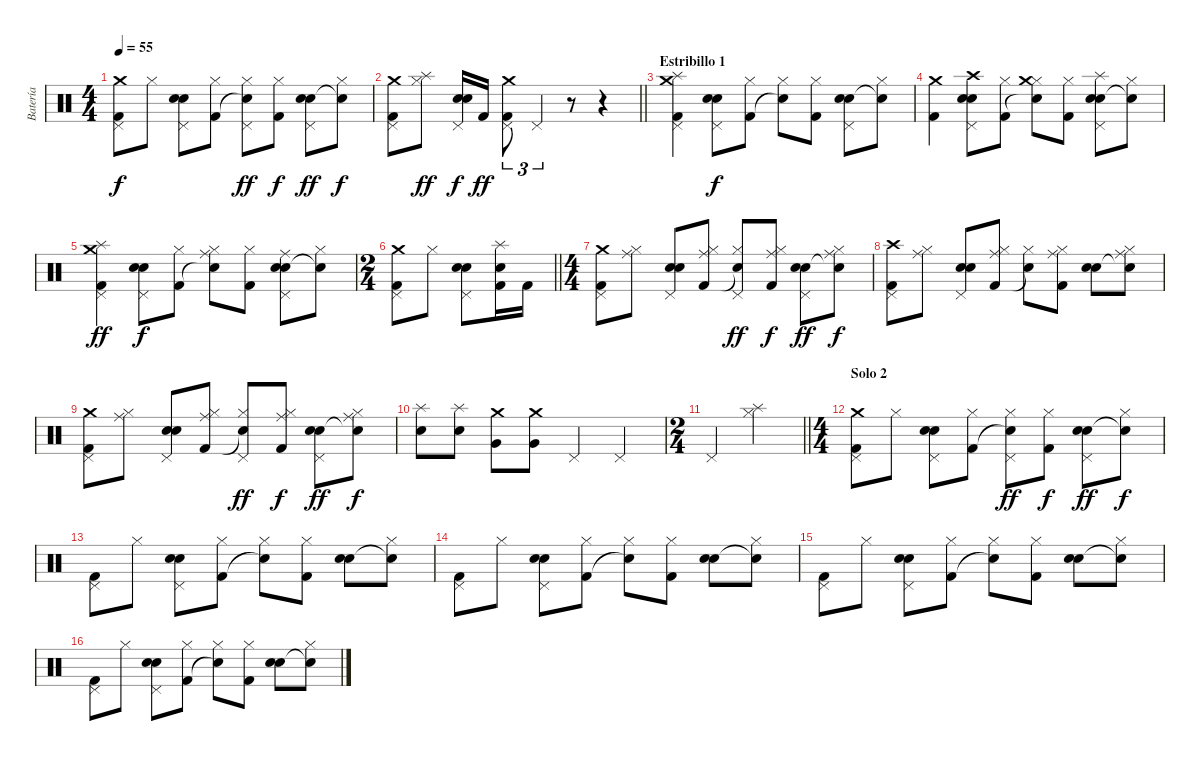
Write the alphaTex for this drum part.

\track ("Batería" "Batería") {instrument percussion}
\staff {score}
\articulation defaults
\ts (4 4)
\tempo 55
\clef neutral
\ks c
("Crash medium (hit)" "Kick (hit) 2" "Pedal Hi-Hat (hit)").8{dy f} "Hi-Hat (closed)".8 ("Electric Snare (hit)" "Snare (hit) 2" "Pedal Hi-Hat (hit)").8 ("Kick (hit) 2" "Hi-Hat (closed)").8 ("Snare (hit)"{t} "Hi-Hat (closed)" "Pedal Hi-Hat (hit)").8{dy ff} ("Kick (hit) 2" "Hi-Hat (closed)").8{dy f} ("Electric Snare (hit)" "Snare (hit) 2" "Pedal Hi-Hat (hit)").8{dy ff} ("Snare (hit)"{t} "Hi-Hat (closed)").8{dy f} |
\barLineRight lightlight
("Crash medium (hit)" "Kick (hit) 2" "Pedal Hi-Hat (hit)").8 ("Hi-Hat (closed)" "Splash (hit)").8{dy ff} ("Electric Snare (hit)" "Snare (hit) 2" "Pedal Hi-Hat (hit)").16{dy f} "Kick (hit) 2".16{dy ff} ("Crash medium (hit)" "Kick (hit) 2" "Pedal Hi-Hat (hit)").8{tu (3 2)} "Pedal Hi-Hat (hit)".4{tu (3 2)} r.8 r.4 |
\section ("" "Estribillo 1")
("Crash medium (hit)" "Kick (hit) 2" "Pedal Hi-Hat (hit)" "Splash (hit)").4 ("Electric Snare (hit)" "Snare (hit) 2" "Pedal Hi-Hat (hit)").8{dy f} ("Kick (hit) 2" "Hi-Hat (closed)").8 ("Snare (hit)"{t} "Hi-Hat (closed)").8 ("Kick (hit) 2" "Hi-Hat (closed)").8 ("Electric Snare (hit)" "Snare (hit) 2" "Pedal Hi-Hat (hit)").8 ("Snare (hit)"{t} "Hi-Hat (closed)").8 |
("Crash medium (hit)" "Kick (hit) 2").4 ("Electric Snare (hit)" "Snare (hit) 2" "Pedal Hi-Hat (hit)" "Crash high (hit)").8 ("Kick (hit) 2" "Hi-Hat (closed)").8 ("Snare (hit)"{t} "Hi-Hat (closed)" "Crash medium (hit)").8 ("Kick (hit) 2" "Hi-Hat (closed)").8 ("Electric Snare (hit)" "Snare (hit) 2" "Pedal Hi-Hat (hit)" "Splash (hit)").8 ("Snare (hit)"{t} "Hi-Hat (closed)").8 |
("Crash medium (hit)" "Kick (hit) 2" "Pedal Hi-Hat (hit)" "Splash (hit)").4{dy ff} ("Electric Snare (hit)" "Snare (hit) 2" "Pedal Hi-Hat (hit)").8{dy f} ("Kick (hit) 2" "Hi-Hat (closed)").8 ("Snare (hit)"{t} "Hi-Hat (closed)" "Ride (middle)").8 ("Kick (hit) 2" "Hi-Hat (closed)").8 ("Electric Snare (hit)" "Snare (hit) 2" "Pedal Hi-Hat (hit)" "Ride (middle)").8 ("Snare (hit)"{t} "Hi-Hat (closed)").8 |
\ts (2 4)
\barLineRight lightlight
("Crash medium (hit)" "Kick (hit) 2" "Pedal Hi-Hat (hit)").8 "Hi-Hat (closed)".8 ("Electric Snare (hit)" "Snare (hit) 2" "Pedal Hi-Hat (hit)").8 ("Kick (hit) 2" "Splash (hit)" "Snare (hit) 2").16 "Kick (hit) 2".16 |
\ts (4 4)
("Crash medium (hit)" "Kick (hit) 2" "Pedal Hi-Hat (hit)").8 ("Hi-Hat (closed)" "Ride (middle)").8 ("Electric Snare (hit)" "Snare (hit) 2" "Pedal Hi-Hat (hit)").8 ("Kick (hit) 2" "Hi-Hat (closed)" "Ride (middle)").8 ("Snare (hit)"{t} "Hi-Hat (closed)" "Pedal Hi-Hat (hit)").8{dy ff} ("Kick (hit) 2" "Hi-Hat (closed)" "Ride (middle)").8{dy f} ("Electric Snare (hit)" "Snare (hit) 2" "Pedal Hi-Hat (hit)").8{dy ff} ("Snare (hit)"{t} "Hi-Hat (closed)" "Ride (middle)").8{dy f} |
("Crash high (hit)" "Kick (hit) 2" "Pedal Hi-Hat (hit)").8 ("Hi-Hat (closed)" "Ride (middle)").8 ("Electric Snare (hit)" "Snare (hit) 2" "Pedal Hi-Hat (hit)").8 ("Kick (hit) 2" "Hi-Hat (closed)" "Ride (middle)").8 ("Snare (hit)"{t} "Hi-Hat (closed)").8 ("Kick (hit) 2" "Hi-Hat (closed)" "Ride (middle)").8 ("Electric Snare (hit)" "Snare (hit) 2").8 ("Snare (hit)"{t} "Hi-Hat (closed)" "Ride (middle)").8 |
("Crash medium (hit)" "Kick (hit) 2" "Pedal Hi-Hat (hit)").8 ("Hi-Hat (closed)" "Ride (middle)").8 ("Electric Snare (hit)" "Snare (hit) 2" "Pedal Hi-Hat (hit)").8 ("Kick (hit) 2" "Hi-Hat (closed)" "Ride (middle)").8 ("Snare (hit)"{t} "Hi-Hat (closed)" "Pedal Hi-Hat (hit)").8{dy ff} ("Kick (hit) 2" "Hi-Hat (closed)" "Ride (middle)").8{dy f} ("Electric Snare (hit)" "Snare (hit) 2" "Pedal Hi-Hat (hit)").8{dy ff} ("Snare (hit)"{t} "Hi-Hat (closed)" "Ride (middle)").8{dy f} |
("Splash (hit)" "Snare (hit) 2").8 ("Splash (hit)" "Snare (hit) 2").8 ("Crash medium (hit)" "Very Low Tom (hit)").8 ("Crash medium (hit)" "Very Low Tom (hit)").8 "Pedal Hi-Hat (hit)".4 "Pedal Hi-Hat (hit)".4 |
\ts (2 4)
\barLineRight lightlight "Pedal Hi-Hat (hit)".4
("Splash (hit)" "Hi-Hat (closed)").4 |
\ts (4 4)
\section ("" "Solo 2")
("Crash medium (hit)" "Kick (hit) 2" "Pedal Hi-Hat (hit)").8 "Hi-Hat (closed)".8 ("Electric Snare (hit)" "Snare (hit) 2" "Pedal Hi-Hat (hit)").8 ("Kick (hit) 2" "Hi-Hat (closed)").8 ("Snare (hit)"{t} "Hi-Hat (closed)" "Pedal Hi-Hat (hit)").8{dy ff} ("Kick (hit) 2" "Hi-Hat (closed)").8{dy f} ("Electric Snare (hit)" "Snare (hit) 2" "Pedal Hi-Hat (hit)").8{dy ff} ("Snare (hit)"{t} "Hi-Hat (closed)").8{dy f} |
("Kick (hit) 2" "Pedal Hi-Hat (hit)").8 "Hi-Hat (closed)".8 ("Electric Snare (hit)" "Snare (hit) 2" "Pedal Hi-Hat (hit)").8 ("Kick (hit) 2" "Hi-Hat (closed)").8 ("Snare (hit)"{t} "Hi-Hat (closed)").8 ("Kick (hit) 2" "Hi-Hat (closed)").8 ("Electric Snare (hit)" "Snare (hit) 2").8 ("Snare (hit)"{t} "Hi-Hat (closed)").8 |
("Kick (hit) 2" "Pedal Hi-Hat (hit)").8 "Hi-Hat (closed)".8 ("Electric Snare (hit)" "Snare (hit) 2" "Pedal Hi-Hat (hit)").8 ("Kick (hit) 2" "Hi-Hat (closed)").8 ("Snare (hit)"{t} "Hi-Hat (closed)").8 ("Kick (hit) 2" "Hi-Hat (closed)").8 ("Electric Snare (hit)" "Snare (hit) 2").8 ("Snare (hit)"{t} "Hi-Hat (closed)").8 |
("Kick (hit) 2" "Pedal Hi-Hat (hit)").8 "Hi-Hat (closed)".8 ("Electric Snare (hit)" "Snare (hit) 2" "Pedal Hi-Hat (hit)").8 ("Kick (hit) 2" "Hi-Hat (closed)").8 ("Snare (hit)"{t} "Hi-Hat (closed)").8 ("Kick (hit) 2" "Hi-Hat (closed)").8 ("Electric Snare (hit)" "Snare (hit) 2").8 ("Snare (hit)"{t} "Hi-Hat (closed)").8 |
("Kick (hit) 2" "Pedal Hi-Hat (hit)").8 "Hi-Hat (closed)".8 ("Electric Snare (hit)" "Snare (hit) 2" "Pedal Hi-Hat (hit)").8 ("Kick (hit) 2" "Hi-Hat (closed)").8 ("Snare (hit)"{t} "Hi-Hat (closed)").8 ("Kick (hit) 2" "Hi-Hat (closed)").8 ("Electric Snare (hit)" "Snare (hit) 2").8 ("Snare (hit)"{t} "Hi-Hat (closed)").8
